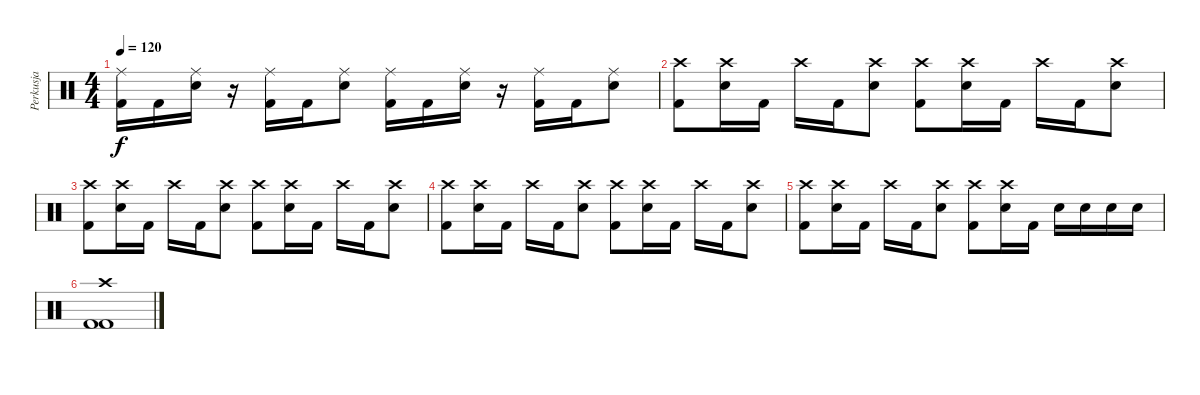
\track ("Perkusja" "Perkusja") {instrument percussion}
\staff {score}
\articulation defaults
\ts (4 4)
\tempo 120
\clef neutral
\ks c
("Ride (middle)" "Kick (hit) 2").16{dy f} "Kick (hit) 2".16 ("Ride (middle)" "Electric Snare (hit)").16 r.16 ("Ride (middle)" "Kick (hit) 2").16 "Kick (hit) 2".16 ("Ride (middle)" "Electric Snare (hit)").8 ("Ride (middle)" "Kick (hit) 2").16 "Kick (hit) 2".16 ("Ride (middle)" "Electric Snare (hit)").16 r.16 ("Ride (middle)" "Kick (hit) 2").16 "Kick (hit) 2".16 ("Ride (middle)" "Electric Snare (hit)").8 |
("Crash high (hit)" "Kick (hit) 2").8 ("Crash high (hit)" "Electric Snare (hit)").16 "Kick (hit) 2".16 "Crash high (hit)".16 "Kick (hit) 2".16 ("Crash high (hit)" "Electric Snare (hit)").8 ("Crash high (hit)" "Kick (hit) 2").8 ("Crash high (hit)" "Electric Snare (hit)").16 "Kick (hit) 2".16 "Crash high (hit)".16 "Kick (hit) 2".16 ("Crash high (hit)" "Electric Snare (hit)").8 |
("Crash high (hit)" "Kick (hit) 2").8 ("Crash high (hit)" "Electric Snare (hit)").16 "Kick (hit) 2".16 "Crash high (hit)".16 "Kick (hit) 2".16 ("Crash high (hit)" "Electric Snare (hit)").8 ("Crash high (hit)" "Kick (hit) 2").8 ("Crash high (hit)" "Electric Snare (hit)").16 "Kick (hit) 2".16 "Crash high (hit)".16 "Kick (hit) 2".16 ("Crash high (hit)" "Electric Snare (hit)").8 |
("Crash high (hit)" "Kick (hit) 2").8 ("Crash high (hit)" "Electric Snare (hit)").16 "Kick (hit) 2".16 "Crash high (hit)".16 "Kick (hit) 2".16 ("Crash high (hit)" "Electric Snare (hit)").8 ("Crash high (hit)" "Kick (hit) 2").8 ("Crash high (hit)" "Electric Snare (hit)").16 "Kick (hit) 2".16 "Crash high (hit)".16 "Kick (hit) 2".16 ("Crash high (hit)" "Electric Snare (hit)").8 |
("Crash high (hit)" "Kick (hit) 2").8 ("Crash high (hit)" "Electric Snare (hit)").16 "Kick (hit) 2".16 "Crash high (hit)".16 "Kick (hit) 2".16 ("Crash high (hit)" "Electric Snare (hit)").8 ("Crash high (hit)" "Kick (hit) 2").8 ("Crash high (hit)" "Electric Snare (hit)").16 "Kick (hit) 2".16 "Electric Snare (hit)".16 "Electric Snare (hit)".16 "Electric Snare (hit)".16 "Electric Snare (hit)".16 |
("Crash high (hit)" "Kick (hit) 2" "Kick (hit) 2").1
